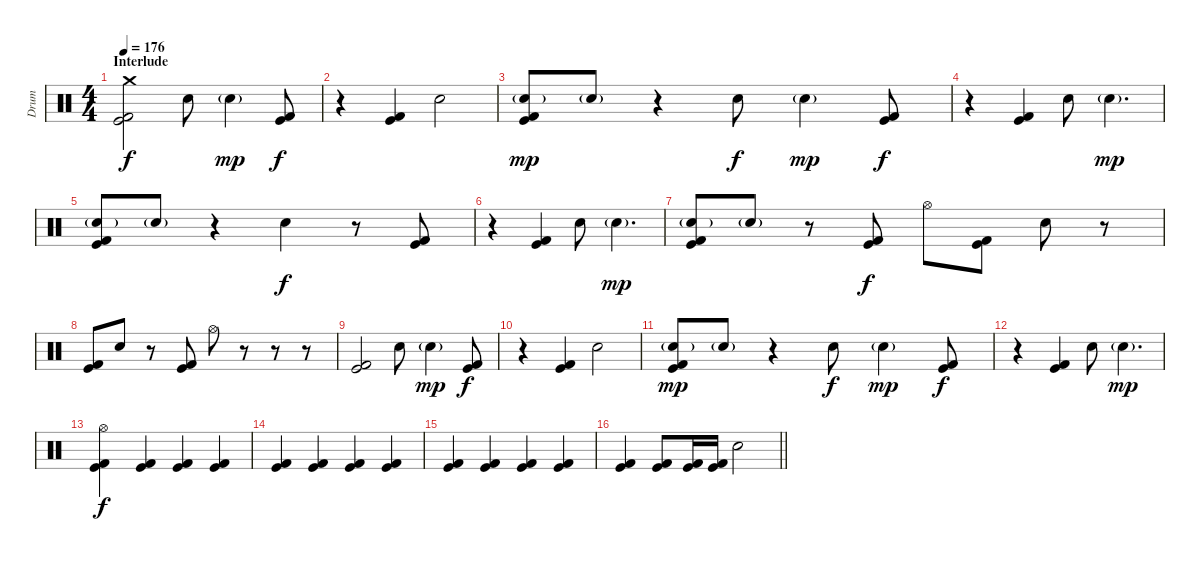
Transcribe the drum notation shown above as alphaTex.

\track ("Drum" "Drum") {instrument percussion}
\staff {score}
\articulation defaults
\ts (4 4)
\section ("" "Interlude")
\tempo 176
\clef neutral
\ks c
("Crash medium (hit)" "Kick (hit)" "Kick (hit) 2").2{dy f} "Electric Snare (hit)".8 "Electric Snare (hit)"{g}.4{dy mp} ("Kick (hit)" "Kick (hit) 2").8{dy f} |
r.4 ("Kick (hit)" "Kick (hit) 2").4 "Electric Snare (hit)".2 |
("Electric Snare (hit)"{g} "Kick (hit)" "Kick (hit) 2").8{dy mp} "Electric Snare (hit)"{g}.8 r.4 "Electric Snare (hit)".8{dy f} "Electric Snare (hit)"{g}.4{dy mp} ("Kick (hit)" "Kick (hit) 2").8{dy f} |
r.4 ("Kick (hit)" "Kick (hit) 2").4 "Electric Snare (hit)".8 "Electric Snare (hit)"{g}.4{d dy mp} |
("Electric Snare (hit)"{g} "Kick (hit)" "Kick (hit) 2").8 "Electric Snare (hit)"{g}.8 r.4 "Electric Snare (hit)".4{dy f} r.8 ("Kick (hit)" "Kick (hit) 2").8 |
r.4 ("Kick (hit)" "Kick (hit) 2").4 "Electric Snare (hit)".8 "Electric Snare (hit)"{g}.4{d dy mp} |
("Electric Snare (hit)"{g} "Kick (hit)" "Kick (hit) 2").8 "Electric Snare (hit)"{g}.8 r.8 ("Kick (hit)" "Kick (hit) 2").8{dy f} "Hi-Hat (open)".8 ("Kick (hit)" "Kick (hit) 2").8 "Electric Snare (hit)".8 r.8 |
("Kick (hit)" "Kick (hit) 2").8 "Electric Snare (hit)".8 r.8 ("Kick (hit)" "Kick (hit) 2").8 "Hi-Hat (open)".8 r.8 r.8 r.8 |
("Kick (hit)" "Kick (hit) 2").2 "Electric Snare (hit)".8 "Electric Snare (hit)"{g}.4{dy mp} ("Kick (hit)" "Kick (hit) 2").8{dy f} |
r.4 ("Kick (hit)" "Kick (hit) 2").4 "Electric Snare (hit)".2 |
("Electric Snare (hit)"{g} "Kick (hit)" "Kick (hit) 2").8{dy mp} "Electric Snare (hit)"{g}.8 r.4 "Electric Snare (hit)".8{dy f} "Electric Snare (hit)"{g}.4{dy mp} ("Kick (hit)" "Kick (hit) 2").8{dy f} |
r.4 ("Kick (hit)" "Kick (hit) 2").4 "Electric Snare (hit)".8 "Electric Snare (hit)"{g}.4{d dy mp} |
("Hi-Hat (open)" "Kick (hit)" "Kick (hit) 2").4{dy f} ("Kick (hit)" "Kick (hit) 2").4 ("Kick (hit)" "Kick (hit) 2").4 ("Kick (hit)" "Kick (hit) 2").4 |
("Kick (hit)" "Kick (hit) 2").4 ("Kick (hit)" "Kick (hit) 2").4 ("Kick (hit)" "Kick (hit) 2").4 ("Kick (hit)" "Kick (hit) 2").4 |
("Kick (hit)" "Kick (hit) 2").4 ("Kick (hit)" "Kick (hit) 2").4 ("Kick (hit)" "Kick (hit) 2").4 ("Kick (hit)" "Kick (hit) 2").4 |
\barLineRight lightlight
("Kick (hit)" "Kick (hit) 2").4 ("Kick (hit)" "Kick (hit) 2").8 ("Kick (hit)" "Kick (hit) 2").16 ("Kick (hit)" "Kick (hit) 2").16 "Electric Snare (hit)".2
